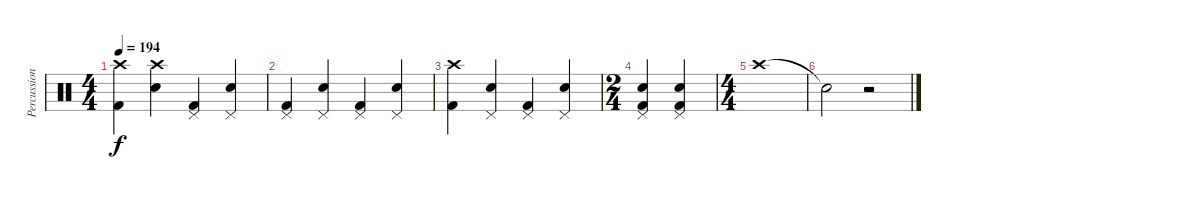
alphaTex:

\track ("Percussions" "Percussion") {instrument percussion}
\staff {score}
\articulation defaults
\ts (4 4)
\tempo 194
\clef neutral
\ks c
("Crash high (hit)" "Kick (hit) 2").4{dy f} ("Crash high (hit)" "Snare (hit) 2").4 ("Pedal Hi-Hat (hit)" "Kick (hit) 2").4 ("Pedal Hi-Hat (hit)" "Snare (hit) 2").4 |
("Pedal Hi-Hat (hit)" "Kick (hit) 2").4 ("Pedal Hi-Hat (hit)" "Snare (hit) 2").4 ("Pedal Hi-Hat (hit)" "Kick (hit) 2").4 ("Pedal Hi-Hat (hit)" "Snare (hit) 2").4 |
("Crash high (hit)" "Kick (hit) 2").4 ("Pedal Hi-Hat (hit)" "Snare (hit) 2").4 ("Pedal Hi-Hat (hit)" "Kick (hit) 2").4 ("Pedal Hi-Hat (hit)" "Snare (hit) 2").4 |
\ts (2 4)
("Pedal Hi-Hat (hit)" "Snare (hit) 2" "Kick (hit) 2").4 ("Pedal Hi-Hat (hit)" "Snare (hit) 2" "Kick (hit) 2").4 |
\ts (4 4)
"Crash high (hit)".1 |
"Snare (hit)"{t}.2 r.2
